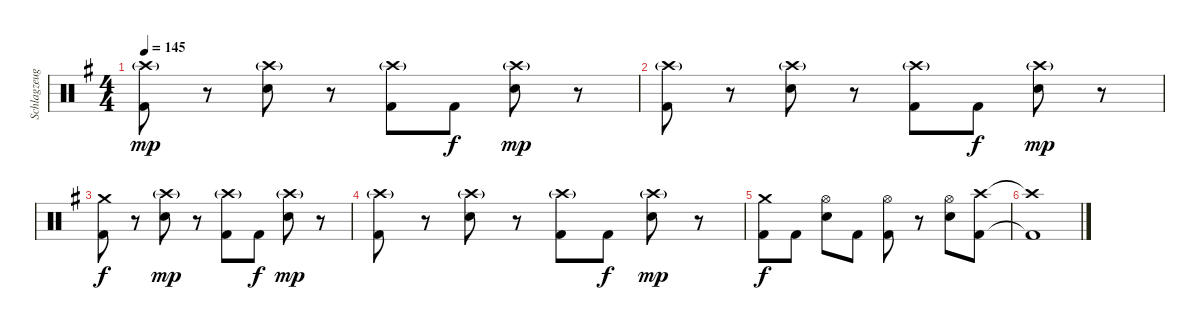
\track ("Schlagzeug - Bela B. Felsenheimer" "Schlagzeug") {instrument percussion}
\staff {score}
\articulation defaults
\ts (4 4)
\tempo 145
\clef neutral
\ks g
("Crash high (hit)"{g} "Kick (hit) 2").8{dy mp} r.8 ("Crash high (hit)"{g} "Snare (hit) 2").8 r.8 ("Crash high (hit)"{g} "Kick (hit) 2").8 "Kick (hit) 2".8{dy f} ("Crash high (hit)"{g} "Snare (hit) 2").8{dy mp} r.8 |
("Crash high (hit)"{g} "Kick (hit) 2").8 r.8 ("Crash high (hit)"{g} "Snare (hit) 2").8 r.8 ("Crash high (hit)"{g} "Kick (hit) 2").8 "Kick (hit) 2".8{dy f} ("Crash high (hit)"{g} "Snare (hit) 2").8{dy mp} r.8 |
("Crash medium (hit)" "Kick (hit) 2").8{dy f} r.8 ("Crash high (hit)"{g} "Snare (hit) 2").8{dy mp} r.8 ("Crash high (hit)"{g} "Kick (hit) 2").8 "Kick (hit) 2".8{dy f} ("Crash high (hit)"{g} "Snare (hit) 2").8{dy mp} r.8 |
("Crash high (hit)"{g} "Kick (hit) 2").8 r.8 ("Crash high (hit)"{g} "Snare (hit) 2").8 r.8 ("Crash high (hit)"{g} "Kick (hit) 2").8 "Kick (hit) 2".8{dy f} ("Crash high (hit)"{g} "Snare (hit) 2").8{dy mp} r.8 |
("Crash medium (hit)" "Kick (hit) 2").8{dy f} "Kick (hit) 2".8 ("Hi-Hat (open)" "Snare (hit) 2").8 "Kick (hit) 2".8 ("Hi-Hat (open)" "Kick (hit) 2").8 r.8 ("Hi-Hat (open)" "Snare (hit) 2").8 ("Crash high (hit)" "Kick (hit) 2").8 |
("Crash high (hit)"{t} "Kick (hit) 2"{t}).1
